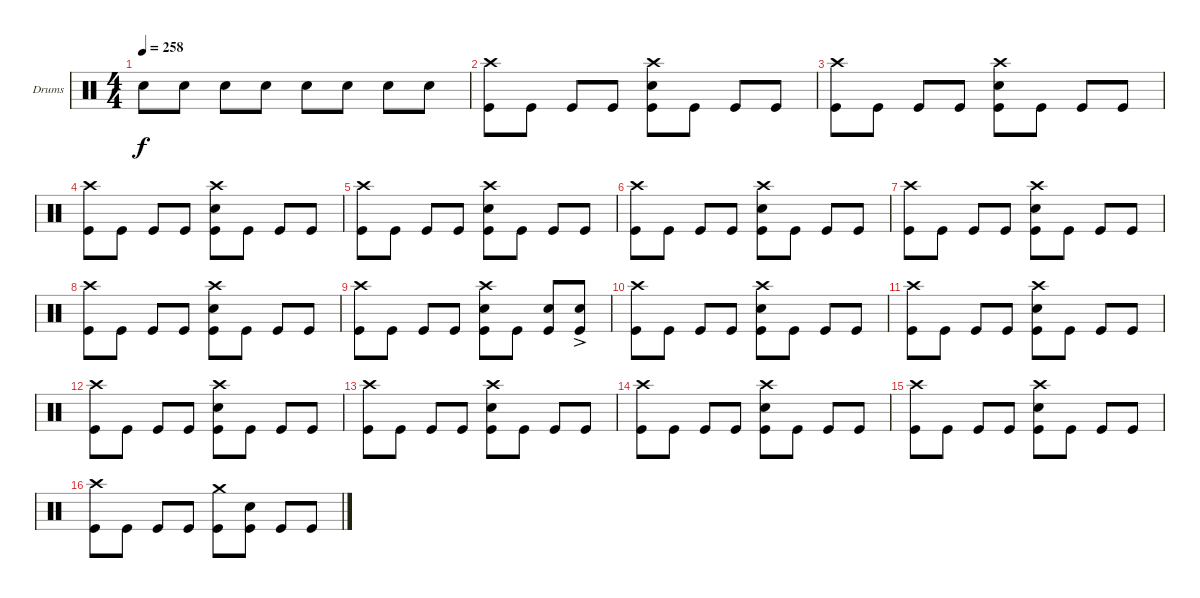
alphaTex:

\defaultSystemsLayout 4
\bracketExtendMode groupsimilarinstruments
\firstSystemTrackNameOrientation horizontal
\otherSystemsTrackNameOrientation horizontal
\track ("Drumkit" "Drums") {instrument percussion}
\staff {score}
\articulation defaults
\ts (4 4)
\tempo 258
\clef neutral
\ks c "Snare (hit) 2".8{dy f} "Snare (hit) 2".8 "Snare (hit) 2".8 "Snare (hit) 2".8 "Snare (hit) 2".8 "Snare (hit) 2".8 "Snare (hit) 2".8 "Snare (hit) 2".8
|
("Kick (hit)" "Crash high (hit)").8 "Kick (hit)".8 "Kick (hit)".8 "Kick (hit)".8 ("Kick (hit)" "Snare (hit) 2" "Crash high (hit)").8 "Kick (hit)".8 "Kick (hit)".8 "Kick (hit)".8 |
("Kick (hit)" "Crash high (hit)").8 "Kick (hit)".8 "Kick (hit)".8 "Kick (hit)".8 ("Kick (hit)" "Snare (hit) 2" "Crash high (hit)").8 "Kick (hit)".8 "Kick (hit)".8 "Kick (hit)".8 |
("Kick (hit)" "Crash high (hit)").8 "Kick (hit)".8 "Kick (hit)".8 "Kick (hit)".8 ("Kick (hit)" "Snare (hit) 2" "Crash high (hit)").8 "Kick (hit)".8 "Kick (hit)".8 "Kick (hit)".8 |
("Kick (hit)" "Crash high (hit)").8 "Kick (hit)".8 "Kick (hit)".8 "Kick (hit)".8 ("Kick (hit)" "Snare (hit) 2" "Crash high (hit)").8 "Kick (hit)".8 "Kick (hit)".8 "Kick (hit)".8 |
("Kick (hit)" "Crash high (hit)").8 "Kick (hit)".8 "Kick (hit)".8 "Kick (hit)".8 ("Kick (hit)" "Snare (hit) 2" "Crash high (hit)").8 "Kick (hit)".8 "Kick (hit)".8 "Kick (hit)".8 |
("Kick (hit)" "Crash high (hit)").8 "Kick (hit)".8 "Kick (hit)".8 "Kick (hit)".8 ("Kick (hit)" "Snare (hit) 2" "Crash high (hit)").8 "Kick (hit)".8 "Kick (hit)".8 "Kick (hit)".8 |
("Kick (hit)" "Crash high (hit)").8 "Kick (hit)".8 "Kick (hit)".8 "Kick (hit)".8 ("Kick (hit)" "Snare (hit) 2" "Crash high (hit)").8 "Kick (hit)".8 "Kick (hit)".8 "Kick (hit)".8 |
("Kick (hit)" "Crash high (hit)").8 "Kick (hit)".8 "Kick (hit)".8 "Kick (hit)".8 ("Kick (hit)" "Snare (hit) 2" "Crash high (hit)").8 "Kick (hit)".8 ("Kick (hit)" "Snare (hit) 2").8 ("Kick (hit)" "Snare (hit) 2"{ac}).8 |
("Kick (hit)" "Crash high (hit)").8 "Kick (hit)".8 "Kick (hit)".8 "Kick (hit)".8 ("Kick (hit)" "Snare (hit) 2" "Crash high (hit)").8 "Kick (hit)".8 "Kick (hit)".8 "Kick (hit)".8 |
("Kick (hit)" "Crash high (hit)").8 "Kick (hit)".8 "Kick (hit)".8 "Kick (hit)".8 ("Kick (hit)" "Snare (hit) 2" "Crash high (hit)").8 "Kick (hit)".8 "Kick (hit)".8 "Kick (hit)".8 |
("Kick (hit)" "Crash high (hit)").8 "Kick (hit)".8 "Kick (hit)".8 "Kick (hit)".8 ("Kick (hit)" "Snare (hit) 2" "Crash high (hit)").8 "Kick (hit)".8 "Kick (hit)".8 "Kick (hit)".8 |
("Kick (hit)" "Crash high (hit)").8 "Kick (hit)".8 "Kick (hit)".8 "Kick (hit)".8 ("Kick (hit)" "Snare (hit) 2" "Crash high (hit)").8 "Kick (hit)".8 "Kick (hit)".8 "Kick (hit)".8 |
("Kick (hit)" "Crash high (hit)").8 "Kick (hit)".8 "Kick (hit)".8 "Kick (hit)".8 ("Kick (hit)" "Snare (hit) 2" "Crash high (hit)").8 "Kick (hit)".8 "Kick (hit)".8 "Kick (hit)".8 |
("Kick (hit)" "Crash high (hit)").8 "Kick (hit)".8 "Kick (hit)".8 "Kick (hit)".8 ("Kick (hit)" "Snare (hit) 2" "Crash high (hit)").8 "Kick (hit)".8 "Kick (hit)".8 "Kick (hit)".8 |
("Kick (hit)" "Crash high (hit)").8 "Kick (hit)".8 "Kick (hit)".8 "Kick (hit)".8 ("Kick (hit)" "Crash medium (hit)").8 ("Kick (hit)" "Snare (hit) 2").8 "Kick (hit)".8 "Kick (hit)".8
